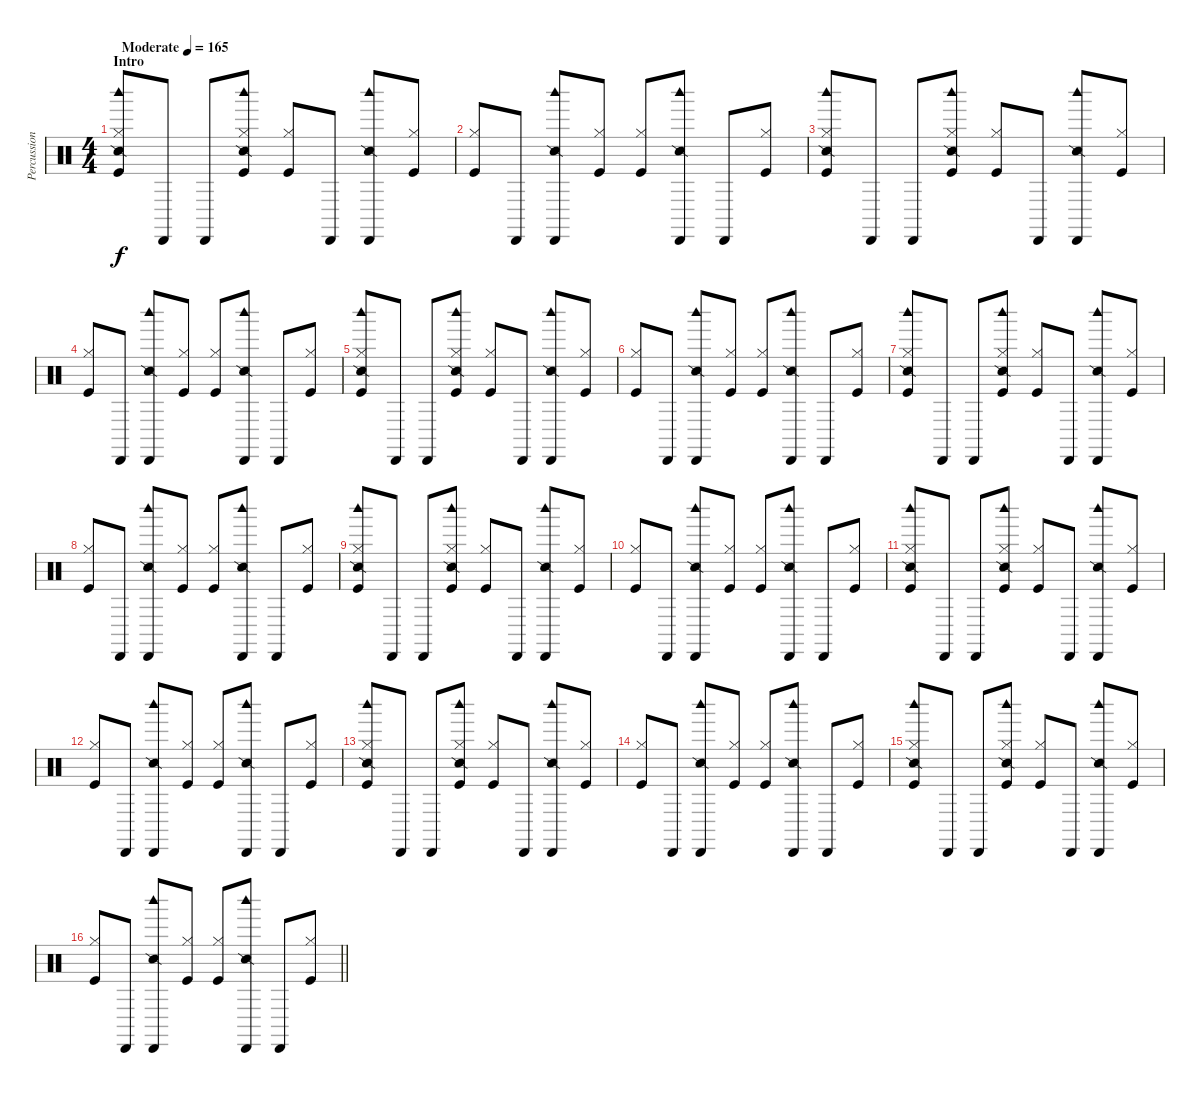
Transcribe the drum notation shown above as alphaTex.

\track ("Percussion" "Percussion") {instrument percussion}
\staff {score}
\articulation defaults
\ts (4 4)
\section ("" "Intro")
\tempo (165 "Moderate")
\clef neutral
\ks c
("Snare (side stick) 2" "Hi-Hat (closed)" "Woodblock high (hit)" "Kick (hit)").8{dy f} "Cabasa (hit)".8 "Cabasa (hit)".8 ("Snare (side stick) 2" "Hi-Hat (closed)" "Woodblock high (hit)" "Kick (hit)").8 ("Hi-Hat (closed)" "Kick (hit)").8 "Cabasa (hit)".8 ("Snare (side stick) 2" "Cabasa (hit)" "Woodblock high (hit)").8 ("Hi-Hat (closed)" "Kick (hit)").8 |
("Hi-Hat (closed)" "Kick (hit)").8 "Cabasa (hit)".8 ("Snare (side stick) 2" "Cabasa (hit)" "Woodblock high (hit)").8 ("Hi-Hat (closed)" "Kick (hit)").8 ("Hi-Hat (closed)" "Kick (hit)").8 ("Snare (side stick) 2" "Cabasa (hit)" "Woodblock high (hit)").8 "Cabasa (hit)".8 ("Hi-Hat (closed)" "Kick (hit)").8 |
("Snare (side stick) 2" "Hi-Hat (closed)" "Woodblock high (hit)" "Kick (hit)").8 "Cabasa (hit)".8 "Cabasa (hit)".8 ("Snare (side stick) 2" "Hi-Hat (closed)" "Woodblock high (hit)" "Kick (hit)").8 ("Hi-Hat (closed)" "Kick (hit)").8 "Cabasa (hit)".8 ("Snare (side stick) 2" "Cabasa (hit)" "Woodblock high (hit)").8 ("Hi-Hat (closed)" "Kick (hit)").8 |
("Hi-Hat (closed)" "Kick (hit)").8 "Cabasa (hit)".8 ("Snare (side stick) 2" "Cabasa (hit)" "Woodblock high (hit)").8 ("Hi-Hat (closed)" "Kick (hit)").8 ("Hi-Hat (closed)" "Kick (hit)").8 ("Snare (side stick) 2" "Cabasa (hit)" "Woodblock high (hit)").8 "Cabasa (hit)".8 ("Hi-Hat (closed)" "Kick (hit)").8 |
("Snare (side stick) 2" "Hi-Hat (closed)" "Woodblock high (hit)" "Kick (hit)").8 "Cabasa (hit)".8 "Cabasa (hit)".8 ("Snare (side stick) 2" "Hi-Hat (closed)" "Woodblock high (hit)" "Kick (hit)").8 ("Hi-Hat (closed)" "Kick (hit)").8 "Cabasa (hit)".8 ("Snare (side stick) 2" "Cabasa (hit)" "Woodblock high (hit)").8 ("Hi-Hat (closed)" "Kick (hit)").8 |
("Hi-Hat (closed)" "Kick (hit)").8 "Cabasa (hit)".8 ("Snare (side stick) 2" "Cabasa (hit)" "Woodblock high (hit)").8 ("Hi-Hat (closed)" "Kick (hit)").8 ("Hi-Hat (closed)" "Kick (hit)").8 ("Snare (side stick) 2" "Cabasa (hit)" "Woodblock high (hit)").8 "Cabasa (hit)".8 ("Hi-Hat (closed)" "Kick (hit)").8 |
("Snare (side stick) 2" "Hi-Hat (closed)" "Woodblock high (hit)" "Kick (hit)").8 "Cabasa (hit)".8 "Cabasa (hit)".8 ("Snare (side stick) 2" "Hi-Hat (closed)" "Woodblock high (hit)" "Kick (hit)").8 ("Hi-Hat (closed)" "Kick (hit)").8 "Cabasa (hit)".8 ("Snare (side stick) 2" "Cabasa (hit)" "Woodblock high (hit)").8 ("Hi-Hat (closed)" "Kick (hit)").8 |
("Hi-Hat (closed)" "Kick (hit)").8 "Cabasa (hit)".8 ("Snare (side stick) 2" "Cabasa (hit)" "Woodblock high (hit)").8 ("Hi-Hat (closed)" "Kick (hit)").8 ("Hi-Hat (closed)" "Kick (hit)").8 ("Snare (side stick) 2" "Cabasa (hit)" "Woodblock high (hit)").8 "Cabasa (hit)".8 ("Hi-Hat (closed)" "Kick (hit)").8 |
("Snare (side stick) 2" "Hi-Hat (closed)" "Woodblock high (hit)" "Kick (hit)").8 "Cabasa (hit)".8 "Cabasa (hit)".8 ("Snare (side stick) 2" "Hi-Hat (closed)" "Woodblock high (hit)" "Kick (hit)").8 ("Hi-Hat (closed)" "Kick (hit)").8 "Cabasa (hit)".8 ("Snare (side stick) 2" "Cabasa (hit)" "Woodblock high (hit)").8 ("Hi-Hat (closed)" "Kick (hit)").8 |
("Hi-Hat (closed)" "Kick (hit)").8 "Cabasa (hit)".8 ("Snare (side stick) 2" "Cabasa (hit)" "Woodblock high (hit)").8 ("Hi-Hat (closed)" "Kick (hit)").8 ("Hi-Hat (closed)" "Kick (hit)").8 ("Snare (side stick) 2" "Cabasa (hit)" "Woodblock high (hit)").8 "Cabasa (hit)".8 ("Hi-Hat (closed)" "Kick (hit)").8 |
("Snare (side stick) 2" "Hi-Hat (closed)" "Woodblock high (hit)" "Kick (hit)").8 "Cabasa (hit)".8 "Cabasa (hit)".8 ("Snare (side stick) 2" "Hi-Hat (closed)" "Woodblock high (hit)" "Kick (hit)").8 ("Hi-Hat (closed)" "Kick (hit)").8 "Cabasa (hit)".8 ("Snare (side stick) 2" "Cabasa (hit)" "Woodblock high (hit)").8 ("Hi-Hat (closed)" "Kick (hit)").8 |
("Hi-Hat (closed)" "Kick (hit)").8 "Cabasa (hit)".8 ("Snare (side stick) 2" "Cabasa (hit)" "Woodblock high (hit)").8 ("Hi-Hat (closed)" "Kick (hit)").8 ("Hi-Hat (closed)" "Kick (hit)").8 ("Snare (side stick) 2" "Cabasa (hit)" "Woodblock high (hit)").8 "Cabasa (hit)".8 ("Hi-Hat (closed)" "Kick (hit)").8 |
("Snare (side stick) 2" "Hi-Hat (closed)" "Woodblock high (hit)" "Kick (hit)").8 "Cabasa (hit)".8 "Cabasa (hit)".8 ("Snare (side stick) 2" "Hi-Hat (closed)" "Woodblock high (hit)" "Kick (hit)").8 ("Hi-Hat (closed)" "Kick (hit)").8 "Cabasa (hit)".8 ("Snare (side stick) 2" "Cabasa (hit)" "Woodblock high (hit)").8 ("Hi-Hat (closed)" "Kick (hit)").8 |
("Hi-Hat (closed)" "Kick (hit)").8 "Cabasa (hit)".8 ("Snare (side stick) 2" "Cabasa (hit)" "Woodblock high (hit)").8 ("Hi-Hat (closed)" "Kick (hit)").8 ("Hi-Hat (closed)" "Kick (hit)").8 ("Snare (side stick) 2" "Cabasa (hit)" "Woodblock high (hit)").8 "Cabasa (hit)".8 ("Hi-Hat (closed)" "Kick (hit)").8 |
("Snare (side stick) 2" "Hi-Hat (closed)" "Woodblock high (hit)" "Kick (hit)").8 "Cabasa (hit)".8 "Cabasa (hit)".8 ("Snare (side stick) 2" "Hi-Hat (closed)" "Woodblock high (hit)" "Kick (hit)").8 ("Hi-Hat (closed)" "Kick (hit)").8 "Cabasa (hit)".8 ("Snare (side stick) 2" "Cabasa (hit)" "Woodblock high (hit)").8 ("Hi-Hat (closed)" "Kick (hit)").8 |
\barLineRight lightlight
("Hi-Hat (closed)" "Kick (hit)").8 "Cabasa (hit)".8 ("Snare (side stick) 2" "Cabasa (hit)" "Woodblock high (hit)").8 ("Hi-Hat (closed)" "Kick (hit)").8 ("Hi-Hat (closed)" "Kick (hit)").8 ("Snare (side stick) 2" "Cabasa (hit)" "Woodblock high (hit)").8 "Cabasa (hit)".8 ("Hi-Hat (closed)" "Kick (hit)").8
